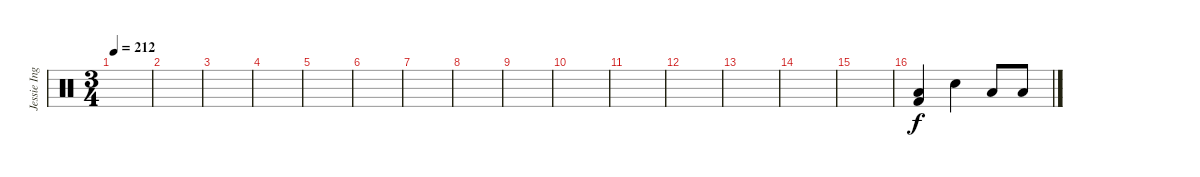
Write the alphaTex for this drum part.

\track ("Jessie Ingelevics" "Jessie Ing") {instrument percussion}
\staff {score}
\articulation defaults
\ts (3 4)
\tempo 212
\clef neutral
\ks c
|
|
|
|
|
|
|
|
|
|
|
|
|
|
|
("Low Floor Tom (hit)" "Kick (hit) 2").4 "Electric Snare (hit)".4 "Low Tom (hit)".8 "Low Tom (hit)".8
